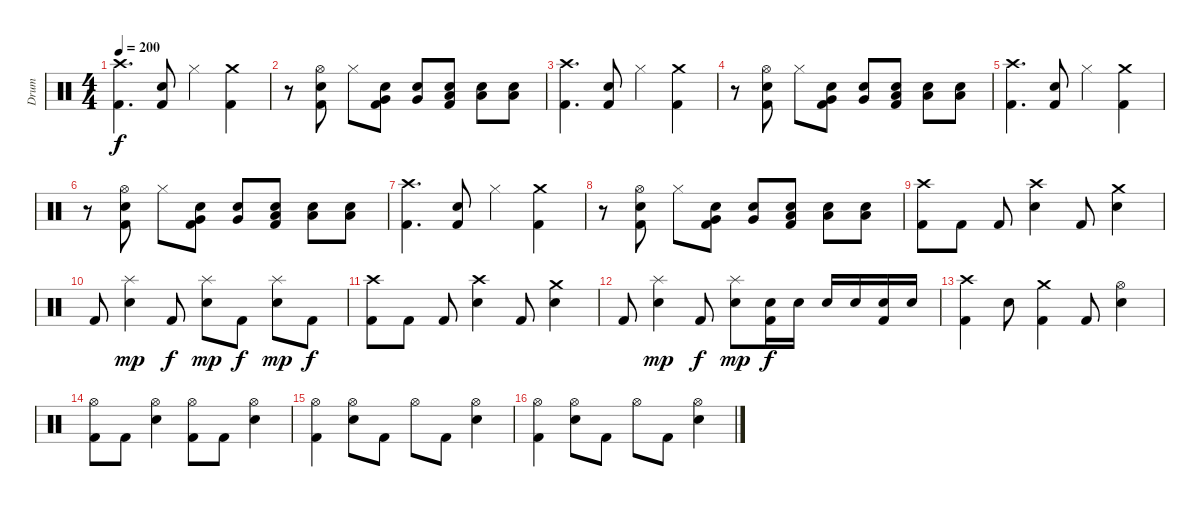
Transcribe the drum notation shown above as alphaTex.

\track ("Drum" "Drum") {instrument percussion}
\staff {score}
\articulation defaults
\ts (4 4)
\tempo 200
\clef neutral
\ks c
("Crash high (hit)" "Kick (hit) 2").4{d dy f} ("Electric Snare (hit)" "Kick (hit) 2").8 "Hi-Hat (closed)".4 ("Crash medium (hit)" "Kick (hit) 2").4 |
r.8 ("Hi-Hat (open)" "Electric Snare (hit)" "Kick (hit) 2").8 "Hi-Hat (closed)".8 ("Electric Snare (hit)" "Very Low Tom (hit)" "Kick (hit) 2").8 ("Electric Snare (hit)" "Very Low Tom (hit)").8 ("Electric Snare (hit)" "Low Floor Tom (hit)" "Kick (hit) 2").8 ("Electric Snare (hit)" "Low Floor Tom (hit)").8 ("Electric Snare (hit)" "Low Floor Tom (hit)").8 |
("Crash high (hit)" "Kick (hit) 2").4{d} ("Electric Snare (hit)" "Kick (hit) 2").8 "Hi-Hat (closed)".4 ("Crash medium (hit)" "Kick (hit) 2").4 |
r.8 ("Hi-Hat (open)" "Electric Snare (hit)" "Kick (hit) 2").8 "Hi-Hat (closed)".8 ("Electric Snare (hit)" "Very Low Tom (hit)" "Kick (hit) 2").8 ("Electric Snare (hit)" "Very Low Tom (hit)").8 ("Electric Snare (hit)" "Low Floor Tom (hit)" "Kick (hit) 2").8 ("Electric Snare (hit)" "Low Floor Tom (hit)").8 ("Electric Snare (hit)" "Low Floor Tom (hit)").8 |
("Crash high (hit)" "Kick (hit) 2").4{d} ("Electric Snare (hit)" "Kick (hit) 2").8 "Hi-Hat (closed)".4 ("Crash medium (hit)" "Kick (hit) 2").4 |
r.8 ("Hi-Hat (open)" "Electric Snare (hit)" "Kick (hit) 2").8 "Hi-Hat (closed)".8 ("Electric Snare (hit)" "Very Low Tom (hit)" "Kick (hit) 2").8 ("Electric Snare (hit)" "Very Low Tom (hit)").8 ("Electric Snare (hit)" "Low Floor Tom (hit)" "Kick (hit) 2").8 ("Electric Snare (hit)" "Low Floor Tom (hit)").8 ("Electric Snare (hit)" "Low Floor Tom (hit)").8 |
("Crash high (hit)" "Kick (hit) 2").4{d} ("Electric Snare (hit)" "Kick (hit) 2").8 "Hi-Hat (closed)".4 ("Crash medium (hit)" "Kick (hit) 2").4 |
r.8 ("Hi-Hat (open)" "Electric Snare (hit)" "Kick (hit) 2").8 "Hi-Hat (closed)".8 ("Electric Snare (hit)" "Very Low Tom (hit)" "Kick (hit) 2").8 ("Electric Snare (hit)" "Very Low Tom (hit)").8 ("Electric Snare (hit)" "Low Floor Tom (hit)" "Kick (hit) 2").8 ("Electric Snare (hit)" "Low Floor Tom (hit)").8 ("Electric Snare (hit)" "Low Floor Tom (hit)").8 |
("Crash high (hit)" "Kick (hit) 2").8 "Kick (hit) 2".8 "Kick (hit) 2".8 ("Crash high (hit)" "Electric Snare (hit)").4 "Kick (hit) 2".8 ("Crash medium (hit)" "Electric Snare (hit)").4 |
"Kick (hit) 2".8 ("Splash (hit)" "Electric Snare (hit)").4{dy mp} "Kick (hit) 2".8{dy f} ("Splash (hit)" "Electric Snare (hit)").8{dy mp} "Kick (hit) 2".8{dy f} ("Splash (hit)" "Electric Snare (hit)").8{dy mp} "Kick (hit) 2".8{dy f} |
("Crash high (hit)" "Kick (hit) 2").8 "Kick (hit) 2".8 "Kick (hit) 2".8 ("Crash high (hit)" "Electric Snare (hit)").4 "Kick (hit) 2".8 ("Crash medium (hit)" "Electric Snare (hit)").4 |
"Kick (hit) 2".8 ("Splash (hit)" "Electric Snare (hit)").4{dy mp} "Kick (hit) 2".8{dy f} ("Splash (hit)" "Electric Snare (hit)").8{dy mp} ("Electric Snare (hit)" "Kick (hit) 2").16{dy f} "Electric Snare (hit)".16 "Electric Snare (hit)".16 "Electric Snare (hit)".16 ("Electric Snare (hit)" "Kick (hit) 2").16 "Electric Snare (hit)".16 |
("Crash high (hit)" "Kick (hit) 2").4 "Electric Snare (hit)".8 ("Crash medium (hit)" "Kick (hit) 2").4 "Kick (hit) 2".8 ("Hi-Hat (open)" "Electric Snare (hit)").4 |
("Hi-Hat (open)" "Kick (hit) 2").8 "Kick (hit) 2".8 ("Hi-Hat (open)" "Electric Snare (hit)").4 ("Hi-Hat (open)" "Kick (hit) 2").8 "Kick (hit) 2".8 ("Hi-Hat (open)" "Electric Snare (hit)").4 |
("Hi-Hat (open)" "Kick (hit) 2").4 ("Hi-Hat (open)" "Electric Snare (hit)").8 "Kick (hit) 2".8 "Hi-Hat (open)".8 "Kick (hit) 2".8 ("Hi-Hat (open)" "Electric Snare (hit)").4 |
("Hi-Hat (open)" "Kick (hit) 2").4 ("Hi-Hat (open)" "Electric Snare (hit)").8 "Kick (hit) 2".8 "Hi-Hat (open)".8 "Kick (hit) 2".8 ("Hi-Hat (open)" "Electric Snare (hit)").4
